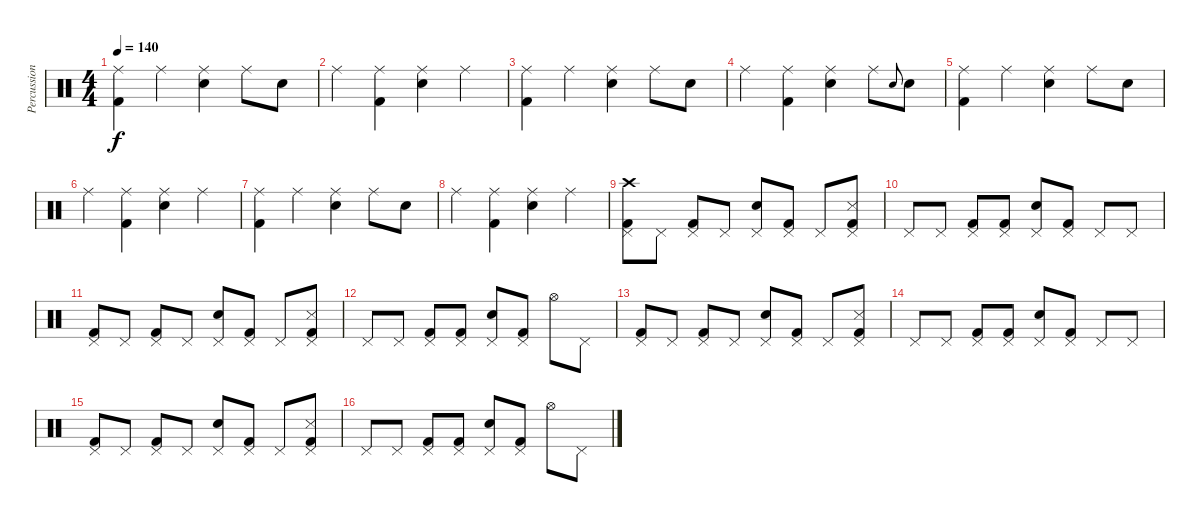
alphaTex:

\track ("Percussion" "Percussion") {instrument percussion}
\staff {score}
\articulation defaults
\ts (4 4)
\tempo 140
\clef neutral
\ks c
("Ride (middle)" "Kick (hit) 2").4{dy f} "Ride (middle)".4 ("Ride (middle)" "Electric Snare (hit)").4 "Ride (middle)".8 "Electric Snare (hit)".8 |
"Ride (middle)".4 ("Ride (middle)" "Kick (hit) 2").4 ("Ride (middle)" "Electric Snare (hit)").4 "Ride (middle)".4 |
("Ride (middle)" "Kick (hit) 2").4 "Ride (middle)".4 ("Ride (middle)" "Electric Snare (hit)").4 "Ride (middle)".8 "Electric Snare (hit)".8 |
"Ride (middle)".4 ("Ride (middle)" "Kick (hit) 2").4 ("Ride (middle)" "Electric Snare (hit)").4 "Ride (middle)".8 "Electric Snare (hit)".8{gr onbeat} "Electric Snare (hit)".8 |
("Ride (middle)" "Kick (hit) 2").4 "Ride (middle)".4 ("Ride (middle)" "Electric Snare (hit)").4 "Ride (middle)".8 "Electric Snare (hit)".8 |
"Ride (middle)".4 ("Ride (middle)" "Kick (hit) 2").4 ("Ride (middle)" "Electric Snare (hit)").4 "Ride (middle)".4 |
("Ride (middle)" "Kick (hit) 2").4 "Ride (middle)".4 ("Ride (middle)" "Electric Snare (hit)").4 "Ride (middle)".8 "Electric Snare (hit)".8 |
"Ride (middle)".4 ("Ride (middle)" "Kick (hit) 2").4 ("Ride (middle)" "Electric Snare (hit)").4 "Ride (middle)".4 |
("Pedal Hi-Hat (hit)" "Crash high (hit)" "Kick (hit) 2").8 "Pedal Hi-Hat (hit)".8 ("Pedal Hi-Hat (hit)" "Kick (hit) 2").8 "Pedal Hi-Hat (hit)".8 ("Pedal Hi-Hat (hit)" "Electric Snare (hit)").8 ("Pedal Hi-Hat (hit)" "Kick (hit) 2").8 "Pedal Hi-Hat (hit)".8 ("Snare (side stick) 3" "Pedal Hi-Hat (hit)" "Kick (hit) 2").8 |
"Pedal Hi-Hat (hit)".8 "Pedal Hi-Hat (hit)".8 ("Pedal Hi-Hat (hit)" "Kick (hit) 2").8 ("Pedal Hi-Hat (hit)" "Kick (hit) 2").8 ("Electric Snare (hit)" "Pedal Hi-Hat (hit)").8 ("Pedal Hi-Hat (hit)" "Kick (hit) 2").8 "Pedal Hi-Hat (hit)".8 "Pedal Hi-Hat (hit)".8 |
("Pedal Hi-Hat (hit)" "Kick (hit) 2").8 "Pedal Hi-Hat (hit)".8 ("Pedal Hi-Hat (hit)" "Kick (hit) 2").8 "Pedal Hi-Hat (hit)".8 ("Pedal Hi-Hat (hit)" "Electric Snare (hit)").8 ("Pedal Hi-Hat (hit)" "Kick (hit) 2").8 "Pedal Hi-Hat (hit)".8 ("Snare (side stick) 3" "Pedal Hi-Hat (hit)" "Kick (hit) 2").8 |
"Pedal Hi-Hat (hit)".8 "Pedal Hi-Hat (hit)".8 ("Pedal Hi-Hat (hit)" "Kick (hit) 2").8 ("Pedal Hi-Hat (hit)" "Kick (hit) 2").8 ("Electric Snare (hit)" "Pedal Hi-Hat (hit)").8 ("Pedal Hi-Hat (hit)" "Kick (hit) 2").8 "Hi-Hat (open)".8 "Pedal Hi-Hat (hit)".8 |
("Pedal Hi-Hat (hit)" "Kick (hit) 2").8 "Pedal Hi-Hat (hit)".8 ("Pedal Hi-Hat (hit)" "Kick (hit) 2").8 "Pedal Hi-Hat (hit)".8 ("Pedal Hi-Hat (hit)" "Electric Snare (hit)").8 ("Pedal Hi-Hat (hit)" "Kick (hit) 2").8 "Pedal Hi-Hat (hit)".8 ("Snare (side stick) 3" "Pedal Hi-Hat (hit)" "Kick (hit) 2").8 |
"Pedal Hi-Hat (hit)".8 "Pedal Hi-Hat (hit)".8 ("Pedal Hi-Hat (hit)" "Kick (hit) 2").8 ("Pedal Hi-Hat (hit)" "Kick (hit) 2").8 ("Electric Snare (hit)" "Pedal Hi-Hat (hit)").8 ("Pedal Hi-Hat (hit)" "Kick (hit) 2").8 "Pedal Hi-Hat (hit)".8 "Pedal Hi-Hat (hit)".8 |
("Pedal Hi-Hat (hit)" "Kick (hit) 2").8 "Pedal Hi-Hat (hit)".8 ("Pedal Hi-Hat (hit)" "Kick (hit) 2").8 "Pedal Hi-Hat (hit)".8 ("Pedal Hi-Hat (hit)" "Electric Snare (hit)").8 ("Pedal Hi-Hat (hit)" "Kick (hit) 2").8 "Pedal Hi-Hat (hit)".8 ("Snare (side stick) 3" "Pedal Hi-Hat (hit)" "Kick (hit) 2").8 |
"Pedal Hi-Hat (hit)".8 "Pedal Hi-Hat (hit)".8 ("Pedal Hi-Hat (hit)" "Kick (hit) 2").8 ("Pedal Hi-Hat (hit)" "Kick (hit) 2").8 ("Electric Snare (hit)" "Pedal Hi-Hat (hit)").8 ("Pedal Hi-Hat (hit)" "Kick (hit) 2").8 "Hi-Hat (open)".8 "Pedal Hi-Hat (hit)".8
